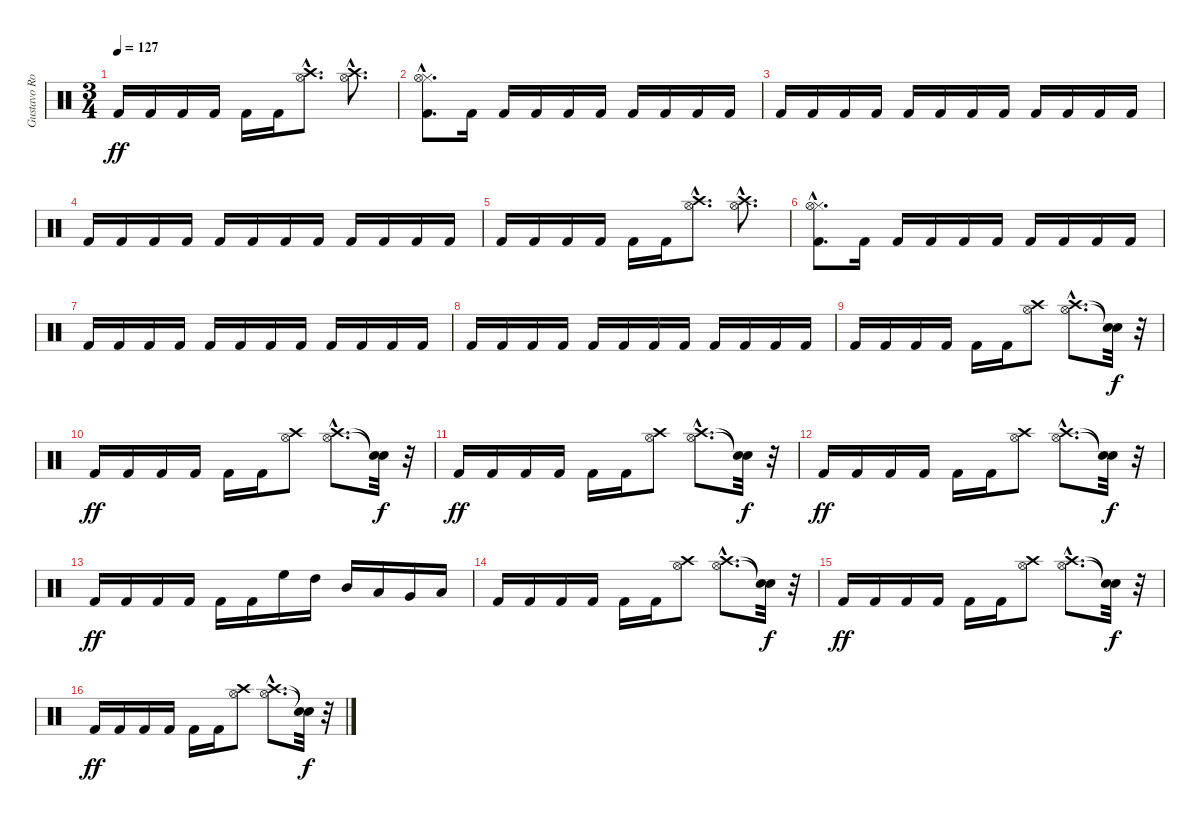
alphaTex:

\track ("Gustavo Rowek 1" "Gustavo Ro") {instrument percussion}
\staff {score}
\articulation defaults
\ts (3 4)
\tempo 127
\clef neutral
\ks c "Kick (hit) 2".16{dy ff} "Kick (hit) 2".16 "Kick (hit) 2".16 "Kick (hit) 2".16 "Kick (hit) 2".16 "Kick (hit) 2".16
("Hi-Hat (open)"{hac} "Crash high (hit)"{hac}).8{d} ("Hi-Hat (open)"{hac} "Crash high (hit)"{hac}).8{d} |
("Kick (hit) 2"{hac} "Hi-Hat (closed)"{hac} "Hi-Hat (open)"{hac}).8{d} "Kick (hit) 2".16 "Kick (hit) 2".16 "Kick (hit) 2".16 "Kick (hit) 2".16 "Kick (hit) 2".16 "Kick (hit) 2".16 "Kick (hit) 2".16 "Kick (hit) 2".16 "Kick (hit) 2".16 |
"Kick (hit) 2".16 "Kick (hit) 2".16 "Kick (hit) 2".16 "Kick (hit) 2".16 "Kick (hit) 2".16 "Kick (hit) 2".16 "Kick (hit) 2".16 "Kick (hit) 2".16 "Kick (hit) 2".16 "Kick (hit) 2".16 "Kick (hit) 2".16 "Kick (hit) 2".16 |
"Kick (hit) 2".16 "Kick (hit) 2".16 "Kick (hit) 2".16 "Kick (hit) 2".16 "Kick (hit) 2".16 "Kick (hit) 2".16 "Kick (hit) 2".16 "Kick (hit) 2".16 "Kick (hit) 2".16 "Kick (hit) 2".16 "Kick (hit) 2".16 "Kick (hit) 2".16 |
"Kick (hit) 2".16 "Kick (hit) 2".16 "Kick (hit) 2".16 "Kick (hit) 2".16 "Kick (hit) 2".16 "Kick (hit) 2".16 ("Hi-Hat (open)"{hac} "Crash high (hit)"{hac}).8{d} ("Hi-Hat (open)"{hac} "Crash high (hit)"{hac}).8{d} |
("Kick (hit) 2"{hac} "Hi-Hat (closed)"{hac} "Hi-Hat (open)"{hac}).8{d} "Kick (hit) 2".16 "Kick (hit) 2".16 "Kick (hit) 2".16 "Kick (hit) 2".16 "Kick (hit) 2".16 "Kick (hit) 2".16 "Kick (hit) 2".16 "Kick (hit) 2".16 "Kick (hit) 2".16 |
"Kick (hit) 2".16 "Kick (hit) 2".16 "Kick (hit) 2".16 "Kick (hit) 2".16 "Kick (hit) 2".16 "Kick (hit) 2".16 "Kick (hit) 2".16 "Kick (hit) 2".16 "Kick (hit) 2".16 "Kick (hit) 2".16 "Kick (hit) 2".16 "Kick (hit) 2".16 |
"Kick (hit) 2".16 "Kick (hit) 2".16 "Kick (hit) 2".16 "Kick (hit) 2".16 "Kick (hit) 2".16 "Kick (hit) 2".16 "Kick (hit) 2".16 "Kick (hit) 2".16 "Kick (hit) 2".16 "Kick (hit) 2".16 "Kick (hit) 2".16 "Kick (hit) 2".16 |
"Kick (hit) 2".16 "Kick (hit) 2".16 "Kick (hit) 2".16 "Kick (hit) 2".16 "Kick (hit) 2".16 "Kick (hit) 2".16 ("Hi-Hat (open)" "Crash high (hit)").8 ("Hi-Hat (open)"{hac} "Crash high (hit)"{hac}).8{d} ("Snare (hit)"{t} "Snare (hit)"{t}).32{dy f} r.32 |
"Kick (hit) 2".16{dy ff} "Kick (hit) 2".16 "Kick (hit) 2".16 "Kick (hit) 2".16 "Kick (hit) 2".16 "Kick (hit) 2".16 ("Hi-Hat (open)" "Crash high (hit)").8 ("Hi-Hat (open)"{hac} "Crash high (hit)"{hac}).8{d} ("Snare (hit)"{t} "Snare (hit)"{t}).32{dy f} r.32 |
"Kick (hit) 2".16{dy ff} "Kick (hit) 2".16 "Kick (hit) 2".16 "Kick (hit) 2".16 "Kick (hit) 2".16 "Kick (hit) 2".16 ("Hi-Hat (open)" "Crash high (hit)").8 ("Hi-Hat (open)"{hac} "Crash high (hit)"{hac}).8{d} ("Snare (hit)"{t} "Snare (hit)"{t}).32{dy f} r.32 |
"Kick (hit) 2".16{dy ff} "Kick (hit) 2".16 "Kick (hit) 2".16 "Kick (hit) 2".16 "Kick (hit) 2".16 "Kick (hit) 2".16 ("Hi-Hat (open)" "Crash high (hit)").8 ("Hi-Hat (open)"{hac} "Crash high (hit)"{hac}).8{d} ("Snare (hit)"{t} "Snare (hit)"{t}).32{dy f} r.32 |
"Kick (hit) 2".16{dy ff} "Kick (hit) 2".16 "Kick (hit) 2".16 "Kick (hit) 2".16 "Kick (hit) 2".16 "Kick (hit) 2".16 "High Floor Tom (hit)".16 "High Tom (hit)".16 "Mid Tom (hit)".16 "Low Tom (hit)".16 "Very Low Tom (hit)".16 "Low Floor Tom (hit)".16 |
"Kick (hit) 2".16 "Kick (hit) 2".16 "Kick (hit) 2".16 "Kick (hit) 2".16 "Kick (hit) 2".16 "Kick (hit) 2".16 ("Hi-Hat (open)" "Crash high (hit)").8 ("Hi-Hat (open)"{hac} "Crash high (hit)"{hac}).8{d} ("Snare (hit)"{t} "Snare (hit)"{t}).32{dy f} r.32 |
"Kick (hit) 2".16{dy ff} "Kick (hit) 2".16 "Kick (hit) 2".16 "Kick (hit) 2".16 "Kick (hit) 2".16 "Kick (hit) 2".16 ("Hi-Hat (open)" "Crash high (hit)").8 ("Hi-Hat (open)"{hac} "Crash high (hit)"{hac}).8{d} ("Snare (hit)"{t} "Snare (hit)"{t}).32{dy f} r.32 |
"Kick (hit) 2".16{dy ff} "Kick (hit) 2".16 "Kick (hit) 2".16 "Kick (hit) 2".16 "Kick (hit) 2".16 "Kick (hit) 2".16 ("Hi-Hat (open)" "Crash high (hit)").8 ("Hi-Hat (open)"{hac} "Crash high (hit)"{hac}).8{d} ("Snare (hit)"{t} "Snare (hit)"{t}).32{dy f} r.32
